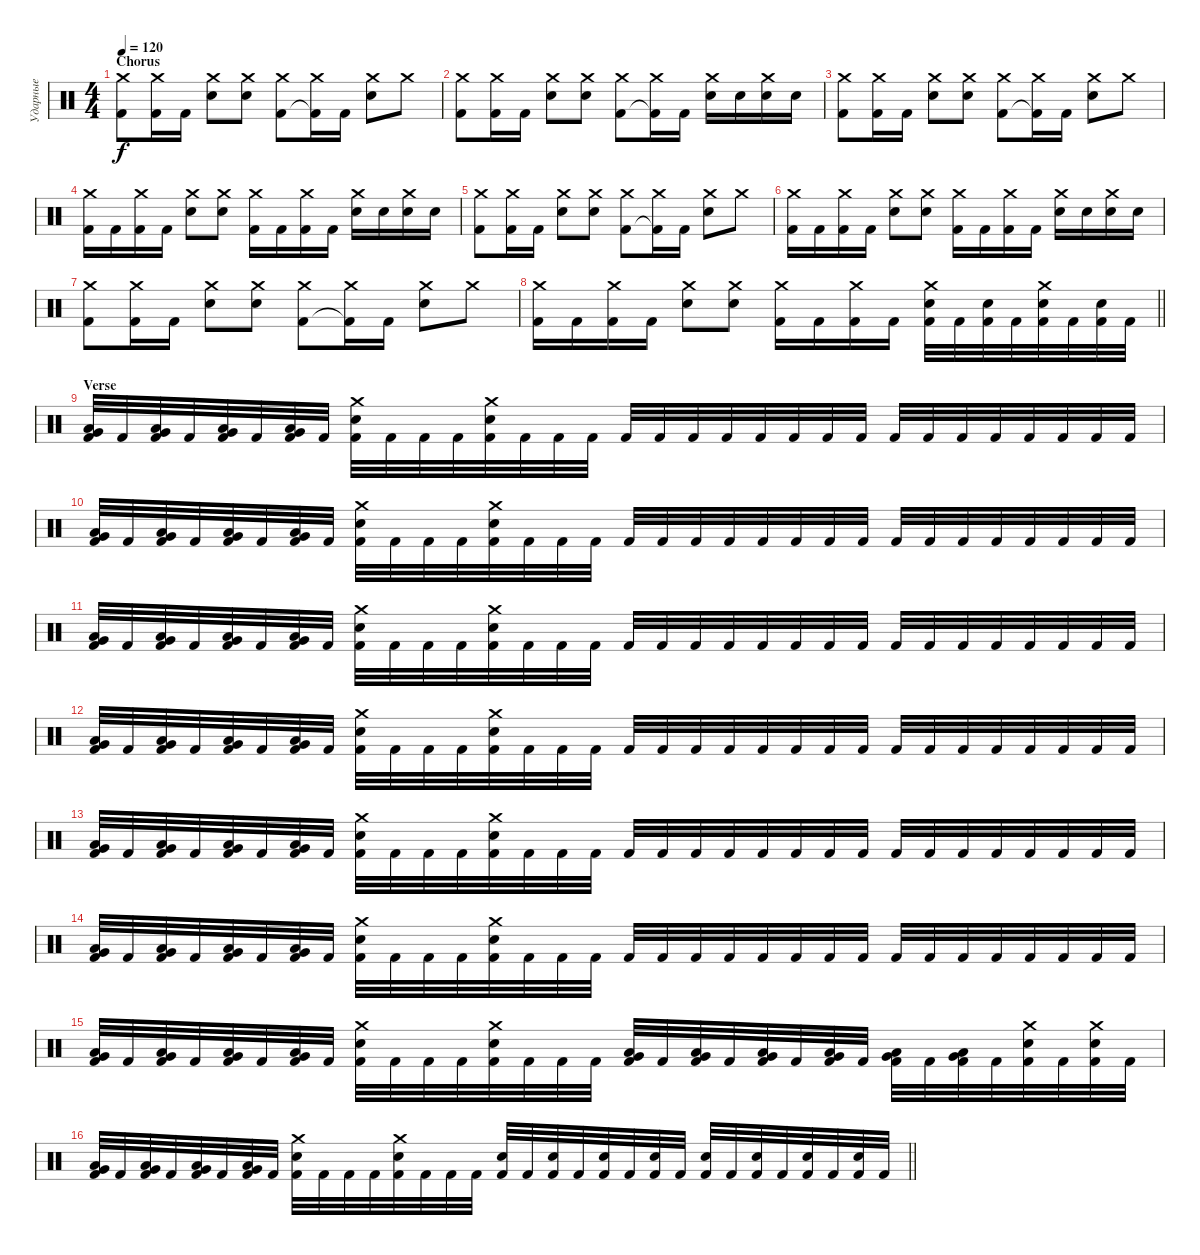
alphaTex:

\track ("Ударные" "Ударные") {instrument percussion}
\staff {score}
\articulation defaults
\ts (4 4)
\section ("" "Chorus")
\tempo 120
\clef neutral
\ks c
("Crash medium (hit)" "Kick (hit) 2").8{dy f} ("Crash medium (hit)" "Kick (hit) 2").16 "Kick (hit) 2".16 ("Crash medium (hit)" "Electric Snare (hit)").8 ("Crash medium (hit)" "Electric Snare (hit)").8 ("Crash medium (hit)" "Kick (hit) 2").8 ("Crash medium (hit)" "Kick (hit) 2"{t}).16 "Kick (hit) 2".16 ("Crash medium (hit)" "Electric Snare (hit)").8 "Crash medium (hit)".8 |
("Crash medium (hit)" "Kick (hit) 2").8 ("Crash medium (hit)" "Kick (hit) 2").16 "Kick (hit) 2".16 ("Crash medium (hit)" "Electric Snare (hit)").8 ("Crash medium (hit)" "Electric Snare (hit)").8 ("Crash medium (hit)" "Kick (hit) 2").8 ("Crash medium (hit)" "Kick (hit) 2"{t}).16 "Kick (hit) 2".16 ("Crash medium (hit)" "Electric Snare (hit)").16 "Electric Snare (hit)".16 ("Crash medium (hit)" "Electric Snare (hit)").16 "Electric Snare (hit)".16 |
("Crash medium (hit)" "Kick (hit) 2").8 ("Crash medium (hit)" "Kick (hit) 2").16 "Kick (hit) 2".16 ("Crash medium (hit)" "Electric Snare (hit)").8 ("Crash medium (hit)" "Electric Snare (hit)").8 ("Crash medium (hit)" "Kick (hit) 2").8 ("Crash medium (hit)" "Kick (hit) 2"{t}).16 "Kick (hit) 2".16 ("Crash medium (hit)" "Electric Snare (hit)").8 "Crash medium (hit)".8 |
("Crash medium (hit)" "Kick (hit) 2").16 "Kick (hit) 2".16 ("Crash medium (hit)" "Kick (hit) 2").16 "Kick (hit) 2".16 ("Crash medium (hit)" "Electric Snare (hit)").8 ("Crash medium (hit)" "Electric Snare (hit)").8 ("Crash medium (hit)" "Kick (hit) 2").16 "Kick (hit) 2".16 ("Crash medium (hit)" "Kick (hit) 2").16 "Kick (hit) 2".16 ("Crash medium (hit)" "Electric Snare (hit)").16 "Electric Snare (hit)".16 ("Crash medium (hit)" "Electric Snare (hit)").16 "Electric Snare (hit)".16 |
("Crash medium (hit)" "Kick (hit) 2").8 ("Crash medium (hit)" "Kick (hit) 2").16 "Kick (hit) 2".16 ("Crash medium (hit)" "Electric Snare (hit)").8 ("Crash medium (hit)" "Electric Snare (hit)").8 ("Crash medium (hit)" "Kick (hit) 2").8 ("Crash medium (hit)" "Kick (hit) 2"{t}).16 "Kick (hit) 2".16 ("Crash medium (hit)" "Electric Snare (hit)").8 "Crash medium (hit)".8 |
("Crash medium (hit)" "Kick (hit) 2").16 "Kick (hit) 2".16 ("Crash medium (hit)" "Kick (hit) 2").16 "Kick (hit) 2".16 ("Crash medium (hit)" "Electric Snare (hit)").8 ("Crash medium (hit)" "Electric Snare (hit)").8 ("Crash medium (hit)" "Kick (hit) 2").16 "Kick (hit) 2".16 ("Crash medium (hit)" "Kick (hit) 2").16 "Kick (hit) 2".16 ("Crash medium (hit)" "Electric Snare (hit)").16 "Electric Snare (hit)".16 ("Crash medium (hit)" "Electric Snare (hit)").16 "Electric Snare (hit)".16 |
("Crash medium (hit)" "Kick (hit) 2").8 ("Crash medium (hit)" "Kick (hit) 2").16 "Kick (hit) 2".16 ("Crash medium (hit)" "Electric Snare (hit)").8 ("Crash medium (hit)" "Electric Snare (hit)").8 ("Crash medium (hit)" "Kick (hit) 2").8 ("Crash medium (hit)" "Kick (hit) 2"{t}).16 "Kick (hit) 2".16 ("Crash medium (hit)" "Electric Snare (hit)").8 "Crash medium (hit)".8 |
\barLineRight lightlight
("Crash medium (hit)" "Kick (hit) 2").16 "Kick (hit) 2".16 ("Crash medium (hit)" "Kick (hit) 2").16 "Kick (hit) 2".16 ("Crash medium (hit)" "Electric Snare (hit)").8 ("Crash medium (hit)" "Electric Snare (hit)").8 ("Crash medium (hit)" "Kick (hit) 2").16 "Kick (hit) 2".16 ("Crash medium (hit)" "Kick (hit) 2").16 "Kick (hit) 2".16 ("Crash medium (hit)" "Electric Snare (hit)" "Kick (hit) 2").32 "Kick (hit) 2".32 ("Electric Snare (hit)" "Kick (hit) 2").32 "Kick (hit) 2".32 ("Crash medium (hit)" "Electric Snare (hit)" "Kick (hit) 2").32 "Kick (hit) 2".32 ("Electric Snare (hit)" "Kick (hit) 2").32 "Kick (hit) 2".32 |
\section ("" "Verse")
("Low Tom (hit)" "Very Low Tom (hit)" "Kick (hit) 2").32 "Kick (hit) 2".32 ("Low Tom (hit)" "Very Low Tom (hit)" "Kick (hit) 2").32 "Kick (hit) 2".32 ("Low Tom (hit)" "Very Low Tom (hit)" "Kick (hit) 2").32 "Kick (hit) 2".32 ("Low Tom (hit)" "Very Low Tom (hit)" "Kick (hit) 2").32 "Kick (hit) 2".32 ("Crash medium (hit)" "Electric Snare (hit)" "Kick (hit) 2").32 "Kick (hit) 2".32 "Kick (hit) 2".32 "Kick (hit) 2".32 ("Crash medium (hit)" "Electric Snare (hit)" "Kick (hit) 2").32 "Kick (hit) 2".32 "Kick (hit) 2".32 "Kick (hit) 2".32 "Kick (hit) 2".32 "Kick (hit) 2".32 "Kick (hit) 2".32 "Kick (hit) 2".32 "Kick (hit) 2".32 "Kick (hit) 2".32 "Kick (hit) 2".32 "Kick (hit) 2".32 "Kick (hit) 2".32 "Kick (hit) 2".32 "Kick (hit) 2".32 "Kick (hit) 2".32 "Kick (hit) 2".32 "Kick (hit) 2".32 "Kick (hit) 2".32 "Kick (hit) 2".32 |
("Low Tom (hit)" "Very Low Tom (hit)" "Kick (hit) 2").32 "Kick (hit) 2".32 ("Low Tom (hit)" "Very Low Tom (hit)" "Kick (hit) 2").32 "Kick (hit) 2".32 ("Low Tom (hit)" "Very Low Tom (hit)" "Kick (hit) 2").32 "Kick (hit) 2".32 ("Low Tom (hit)" "Very Low Tom (hit)" "Kick (hit) 2").32 "Kick (hit) 2".32 ("Crash medium (hit)" "Electric Snare (hit)" "Kick (hit) 2").32 "Kick (hit) 2".32 "Kick (hit) 2".32 "Kick (hit) 2".32 ("Crash medium (hit)" "Electric Snare (hit)" "Kick (hit) 2").32 "Kick (hit) 2".32 "Kick (hit) 2".32 "Kick (hit) 2".32 "Kick (hit) 2".32 "Kick (hit) 2".32 "Kick (hit) 2".32 "Kick (hit) 2".32 "Kick (hit) 2".32 "Kick (hit) 2".32 "Kick (hit) 2".32 "Kick (hit) 2".32 "Kick (hit) 2".32 "Kick (hit) 2".32 "Kick (hit) 2".32 "Kick (hit) 2".32 "Kick (hit) 2".32 "Kick (hit) 2".32 "Kick (hit) 2".32 "Kick (hit) 2".32 |
("Low Tom (hit)" "Very Low Tom (hit)" "Kick (hit) 2").32 "Kick (hit) 2".32 ("Low Tom (hit)" "Very Low Tom (hit)" "Kick (hit) 2").32 "Kick (hit) 2".32 ("Low Tom (hit)" "Very Low Tom (hit)" "Kick (hit) 2").32 "Kick (hit) 2".32 ("Low Tom (hit)" "Very Low Tom (hit)" "Kick (hit) 2").32 "Kick (hit) 2".32 ("Crash medium (hit)" "Electric Snare (hit)" "Kick (hit) 2").32 "Kick (hit) 2".32 "Kick (hit) 2".32 "Kick (hit) 2".32 ("Crash medium (hit)" "Electric Snare (hit)" "Kick (hit) 2").32 "Kick (hit) 2".32 "Kick (hit) 2".32 "Kick (hit) 2".32 "Kick (hit) 2".32 "Kick (hit) 2".32 "Kick (hit) 2".32 "Kick (hit) 2".32 "Kick (hit) 2".32 "Kick (hit) 2".32 "Kick (hit) 2".32 "Kick (hit) 2".32 "Kick (hit) 2".32 "Kick (hit) 2".32 "Kick (hit) 2".32 "Kick (hit) 2".32 "Kick (hit) 2".32 "Kick (hit) 2".32 "Kick (hit) 2".32 "Kick (hit) 2".32 |
("Low Tom (hit)" "Very Low Tom (hit)" "Kick (hit) 2").32 "Kick (hit) 2".32 ("Low Tom (hit)" "Very Low Tom (hit)" "Kick (hit) 2").32 "Kick (hit) 2".32 ("Low Tom (hit)" "Very Low Tom (hit)" "Kick (hit) 2").32 "Kick (hit) 2".32 ("Low Tom (hit)" "Very Low Tom (hit)" "Kick (hit) 2").32 "Kick (hit) 2".32 ("Crash medium (hit)" "Electric Snare (hit)" "Kick (hit) 2").32 "Kick (hit) 2".32 "Kick (hit) 2".32 "Kick (hit) 2".32 ("Crash medium (hit)" "Electric Snare (hit)" "Kick (hit) 2").32 "Kick (hit) 2".32 "Kick (hit) 2".32 "Kick (hit) 2".32 "Kick (hit) 2".32 "Kick (hit) 2".32 "Kick (hit) 2".32 "Kick (hit) 2".32 "Kick (hit) 2".32 "Kick (hit) 2".32 "Kick (hit) 2".32 "Kick (hit) 2".32 "Kick (hit) 2".32 "Kick (hit) 2".32 "Kick (hit) 2".32 "Kick (hit) 2".32 "Kick (hit) 2".32 "Kick (hit) 2".32 "Kick (hit) 2".32 "Kick (hit) 2".32 |
("Low Tom (hit)" "Very Low Tom (hit)" "Kick (hit) 2").32 "Kick (hit) 2".32 ("Low Tom (hit)" "Very Low Tom (hit)" "Kick (hit) 2").32 "Kick (hit) 2".32 ("Low Tom (hit)" "Very Low Tom (hit)" "Kick (hit) 2").32 "Kick (hit) 2".32 ("Low Tom (hit)" "Very Low Tom (hit)" "Kick (hit) 2").32 "Kick (hit) 2".32 ("Crash medium (hit)" "Electric Snare (hit)" "Kick (hit) 2").32 "Kick (hit) 2".32 "Kick (hit) 2".32 "Kick (hit) 2".32 ("Crash medium (hit)" "Electric Snare (hit)" "Kick (hit) 2").32 "Kick (hit) 2".32 "Kick (hit) 2".32 "Kick (hit) 2".32 "Kick (hit) 2".32 "Kick (hit) 2".32 "Kick (hit) 2".32 "Kick (hit) 2".32 "Kick (hit) 2".32 "Kick (hit) 2".32 "Kick (hit) 2".32 "Kick (hit) 2".32 "Kick (hit) 2".32 "Kick (hit) 2".32 "Kick (hit) 2".32 "Kick (hit) 2".32 "Kick (hit) 2".32 "Kick (hit) 2".32 "Kick (hit) 2".32 "Kick (hit) 2".32 |
("Low Tom (hit)" "Very Low Tom (hit)" "Kick (hit) 2").32 "Kick (hit) 2".32 ("Low Tom (hit)" "Very Low Tom (hit)" "Kick (hit) 2").32 "Kick (hit) 2".32 ("Low Tom (hit)" "Very Low Tom (hit)" "Kick (hit) 2").32 "Kick (hit) 2".32 ("Low Tom (hit)" "Very Low Tom (hit)" "Kick (hit) 2").32 "Kick (hit) 2".32 ("Crash medium (hit)" "Electric Snare (hit)" "Kick (hit) 2").32 "Kick (hit) 2".32 "Kick (hit) 2".32 "Kick (hit) 2".32 ("Crash medium (hit)" "Electric Snare (hit)" "Kick (hit) 2").32 "Kick (hit) 2".32 "Kick (hit) 2".32 "Kick (hit) 2".32 "Kick (hit) 2".32 "Kick (hit) 2".32 "Kick (hit) 2".32 "Kick (hit) 2".32 "Kick (hit) 2".32 "Kick (hit) 2".32 "Kick (hit) 2".32 "Kick (hit) 2".32 "Kick (hit) 2".32 "Kick (hit) 2".32 "Kick (hit) 2".32 "Kick (hit) 2".32 "Kick (hit) 2".32 "Kick (hit) 2".32 "Kick (hit) 2".32 "Kick (hit) 2".32 |
("Low Tom (hit)" "Very Low Tom (hit)" "Kick (hit) 2").32 "Kick (hit) 2".32 ("Low Tom (hit)" "Very Low Tom (hit)" "Kick (hit) 2").32 "Kick (hit) 2".32 ("Low Tom (hit)" "Very Low Tom (hit)" "Kick (hit) 2").32 "Kick (hit) 2".32 ("Low Tom (hit)" "Very Low Tom (hit)" "Kick (hit) 2").32 "Kick (hit) 2".32 ("Crash medium (hit)" "Electric Snare (hit)" "Kick (hit) 2").32 "Kick (hit) 2".32 "Kick (hit) 2".32 "Kick (hit) 2".32 ("Crash medium (hit)" "Electric Snare (hit)" "Kick (hit) 2").32 "Kick (hit) 2".32 "Kick (hit) 2".32 "Kick (hit) 2".32 ("Low Tom (hit)" "Very Low Tom (hit)" "Kick (hit) 2").32 "Kick (hit) 2".32 ("Low Tom (hit)" "Very Low Tom (hit)" "Kick (hit) 2").32 "Kick (hit) 2".32 ("Low Tom (hit)" "Very Low Tom (hit)" "Kick (hit) 2").32 "Kick (hit) 2".32 ("Low Tom (hit)" "Very Low Tom (hit)" "Kick (hit) 2").32 "Kick (hit) 2".32 ("Low Tom (hit)" "Very Low Tom (hit)" "Kick (hit) 2").32 "Kick (hit) 2".32 ("Low Tom (hit)" "Very Low Tom (hit)" "Kick (hit) 2").32 "Kick (hit) 2".32 ("Crash medium (hit)" "Electric Snare (hit)" "Kick (hit) 2").32 "Kick (hit) 2".32 ("Crash medium (hit)" "Electric Snare (hit)" "Kick (hit) 2").32 "Kick (hit) 2".32 |
\barLineRight lightlight
("Low Tom (hit)" "Very Low Tom (hit)" "Kick (hit) 2").32 "Kick (hit) 2".32 ("Low Tom (hit)" "Very Low Tom (hit)" "Kick (hit) 2").32 "Kick (hit) 2".32 ("Low Tom (hit)" "Very Low Tom (hit)" "Kick (hit) 2").32 "Kick (hit) 2".32 ("Low Tom (hit)" "Very Low Tom (hit)" "Kick (hit) 2").32 "Kick (hit) 2".32 ("Crash medium (hit)" "Electric Snare (hit)" "Kick (hit) 2").32 "Kick (hit) 2".32 "Kick (hit) 2".32 "Kick (hit) 2".32 ("Crash medium (hit)" "Electric Snare (hit)" "Kick (hit) 2").32 "Kick (hit) 2".32 "Kick (hit) 2".32 "Kick (hit) 2".32 ("Electric Snare (hit)" "Kick (hit) 2").32 "Kick (hit) 2".32 ("Electric Snare (hit)" "Kick (hit) 2").32 "Kick (hit) 2".32 ("Electric Snare (hit)" "Kick (hit) 2").32 "Kick (hit) 2".32 ("Electric Snare (hit)" "Kick (hit) 2").32 "Kick (hit) 2".32 ("Electric Snare (hit)" "Kick (hit) 2").32 "Kick (hit) 2".32 ("Electric Snare (hit)" "Kick (hit) 2").32 "Kick (hit) 2".32 ("Electric Snare (hit)" "Kick (hit) 2").32 "Kick (hit) 2".32 ("Electric Snare (hit)" "Kick (hit) 2").32 "Kick (hit) 2".32
